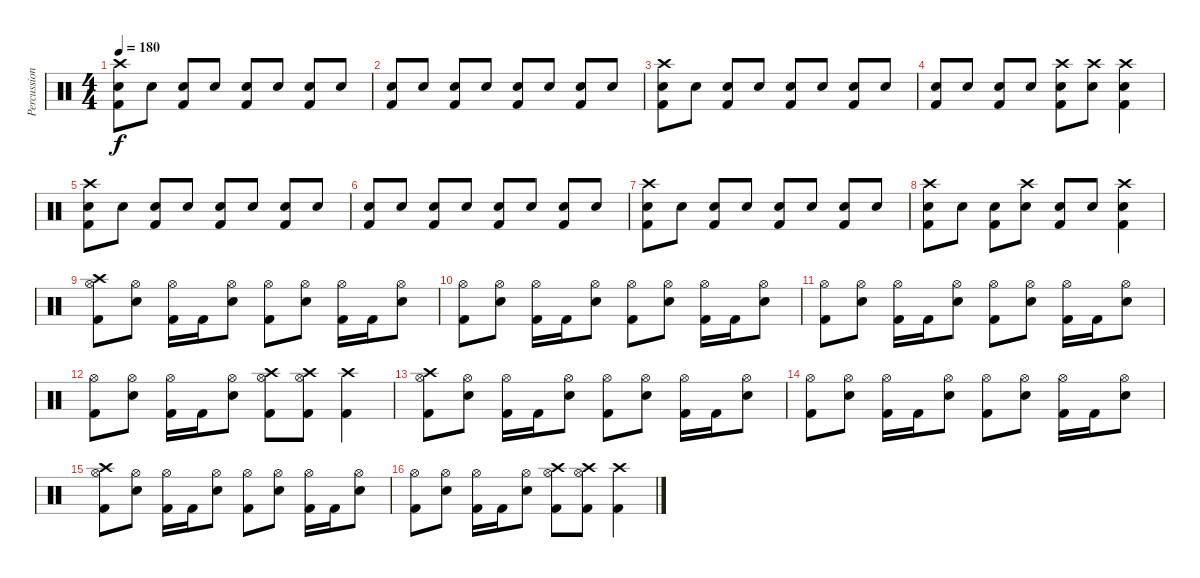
\track ("Percussion" "Percussion") {instrument percussion}
\staff {score}
\articulation defaults
\ts (4 4)
\tempo 180
\clef neutral
\ks c
("Crash high (hit)" "Snare (hit) 2" "Kick (hit) 2").8{dy f} "Snare (hit) 2".8 ("Snare (hit) 2" "Kick (hit) 2").8 "Snare (hit) 2".8 ("Snare (hit) 2" "Kick (hit) 2").8 "Snare (hit) 2".8 ("Snare (hit) 2" "Kick (hit) 2").8 "Snare (hit) 2".8 |
("Snare (hit) 2" "Kick (hit) 2").8 "Snare (hit) 2".8 ("Snare (hit) 2" "Kick (hit) 2").8 "Snare (hit) 2".8 ("Snare (hit) 2" "Kick (hit) 2").8 "Snare (hit) 2".8 ("Snare (hit) 2" "Kick (hit) 2").8 "Snare (hit) 2".8 |
("Crash high (hit)" "Snare (hit) 2" "Kick (hit) 2").8 "Snare (hit) 2".8 ("Snare (hit) 2" "Kick (hit) 2").8 "Snare (hit) 2".8 ("Snare (hit) 2" "Kick (hit) 2").8 "Snare (hit) 2".8 ("Snare (hit) 2" "Kick (hit) 2").8 "Snare (hit) 2".8 |
("Snare (hit) 2" "Kick (hit) 2").8 "Snare (hit) 2".8 ("Snare (hit) 2" "Kick (hit) 2").8 "Snare (hit) 2".8 ("Crash high (hit)" "Snare (hit) 2" "Kick (hit) 2").8 ("Crash high (hit)" "Snare (hit) 2").8 ("Crash high (hit)" "Snare (hit) 2" "Kick (hit) 2").4 |
("Crash high (hit)" "Snare (hit) 2" "Kick (hit) 2").8 "Snare (hit) 2".8 ("Snare (hit) 2" "Kick (hit) 2").8 "Snare (hit) 2".8 ("Snare (hit) 2" "Kick (hit) 2").8 "Snare (hit) 2".8 ("Snare (hit) 2" "Kick (hit) 2").8 "Snare (hit) 2".8 |
("Snare (hit) 2" "Kick (hit) 2").8 "Snare (hit) 2".8 ("Snare (hit) 2" "Kick (hit) 2").8 "Snare (hit) 2".8 ("Snare (hit) 2" "Kick (hit) 2").8 "Snare (hit) 2".8 ("Snare (hit) 2" "Kick (hit) 2").8 "Snare (hit) 2".8 |
("Crash high (hit)" "Snare (hit) 2" "Kick (hit) 2").8 "Snare (hit) 2".8 ("Snare (hit) 2" "Kick (hit) 2").8 "Snare (hit) 2".8 ("Snare (hit) 2" "Kick (hit) 2").8 "Snare (hit) 2".8 ("Snare (hit) 2" "Kick (hit) 2").8 "Snare (hit) 2".8 |
("Crash high (hit)" "Snare (hit) 2" "Kick (hit) 2").8 "Snare (hit) 2".8 ("Snare (hit) 2" "Kick (hit) 2").8 ("Crash high (hit)" "Snare (hit) 2").8 ("Snare (hit) 2" "Kick (hit) 2").8 "Snare (hit) 2".8 ("Crash high (hit)" "Snare (hit) 2" "Kick (hit) 2").4 |
("Crash high (hit)" "Hi-Hat (open)" "Kick (hit) 2").8 ("Hi-Hat (open)" "Snare (hit) 2").8 ("Hi-Hat (open)" "Kick (hit) 2").16 "Kick (hit) 2".16 ("Hi-Hat (open)" "Snare (hit) 2").8 ("Hi-Hat (open)" "Kick (hit) 2").8 ("Hi-Hat (open)" "Snare (hit) 2").8 ("Hi-Hat (open)" "Kick (hit) 2").16 "Kick (hit) 2".16 ("Hi-Hat (open)" "Snare (hit) 2").8 |
("Hi-Hat (open)" "Kick (hit) 2").8 ("Hi-Hat (open)" "Snare (hit) 2").8 ("Hi-Hat (open)" "Kick (hit) 2").16 "Kick (hit) 2".16 ("Hi-Hat (open)" "Snare (hit) 2").8 ("Hi-Hat (open)" "Kick (hit) 2").8 ("Hi-Hat (open)" "Snare (hit) 2").8 ("Hi-Hat (open)" "Kick (hit) 2").16 "Kick (hit) 2".16 ("Hi-Hat (open)" "Snare (hit) 2").8 |
("Hi-Hat (open)" "Kick (hit) 2").8 ("Hi-Hat (open)" "Snare (hit) 2").8 ("Hi-Hat (open)" "Kick (hit) 2").16 "Kick (hit) 2".16 ("Hi-Hat (open)" "Snare (hit) 2").8 ("Hi-Hat (open)" "Kick (hit) 2").8 ("Hi-Hat (open)" "Snare (hit) 2").8 ("Hi-Hat (open)" "Kick (hit) 2").16 "Kick (hit) 2".16 ("Hi-Hat (open)" "Snare (hit) 2").8 |
("Hi-Hat (open)" "Kick (hit) 2").8 ("Hi-Hat (open)" "Snare (hit) 2").8 ("Hi-Hat (open)" "Kick (hit) 2").16 "Kick (hit) 2".16 ("Hi-Hat (open)" "Snare (hit) 2").8 ("Crash high (hit)" "Hi-Hat (open)" "Kick (hit) 2").8 ("Crash high (hit)" "Hi-Hat (open)" "Kick (hit) 2").8 ("Crash high (hit)" "Kick (hit) 2").4 |
("Crash high (hit)" "Hi-Hat (open)" "Kick (hit) 2").8 ("Hi-Hat (open)" "Snare (hit) 2").8 ("Hi-Hat (open)" "Kick (hit) 2").16 "Kick (hit) 2".16 ("Hi-Hat (open)" "Snare (hit) 2").8 ("Hi-Hat (open)" "Kick (hit) 2").8 ("Hi-Hat (open)" "Snare (hit) 2").8 ("Hi-Hat (open)" "Kick (hit) 2").16 "Kick (hit) 2".16 ("Hi-Hat (open)" "Snare (hit) 2").8 |
("Hi-Hat (open)" "Kick (hit) 2").8 ("Hi-Hat (open)" "Snare (hit) 2").8 ("Hi-Hat (open)" "Kick (hit) 2").16 "Kick (hit) 2".16 ("Hi-Hat (open)" "Snare (hit) 2").8 ("Hi-Hat (open)" "Kick (hit) 2").8 ("Hi-Hat (open)" "Snare (hit) 2").8 ("Hi-Hat (open)" "Kick (hit) 2").16 "Kick (hit) 2".16 ("Hi-Hat (open)" "Snare (hit) 2").8 |
("Crash high (hit)" "Hi-Hat (open)" "Kick (hit) 2").8 ("Hi-Hat (open)" "Snare (hit) 2").8 ("Hi-Hat (open)" "Kick (hit) 2").16 "Kick (hit) 2".16 ("Hi-Hat (open)" "Snare (hit) 2").8 ("Hi-Hat (open)" "Kick (hit) 2").8 ("Hi-Hat (open)" "Snare (hit) 2").8 ("Hi-Hat (open)" "Kick (hit) 2").16 "Kick (hit) 2".16 ("Hi-Hat (open)" "Snare (hit) 2").8 |
("Hi-Hat (open)" "Kick (hit) 2").8 ("Hi-Hat (open)" "Snare (hit) 2").8 ("Hi-Hat (open)" "Kick (hit) 2").16 "Kick (hit) 2".16 ("Hi-Hat (open)" "Snare (hit) 2").8 ("Crash high (hit)" "Hi-Hat (open)" "Kick (hit) 2").8 ("Crash high (hit)" "Hi-Hat (open)" "Kick (hit) 2").8 ("Crash high (hit)" "Kick (hit) 2").4
